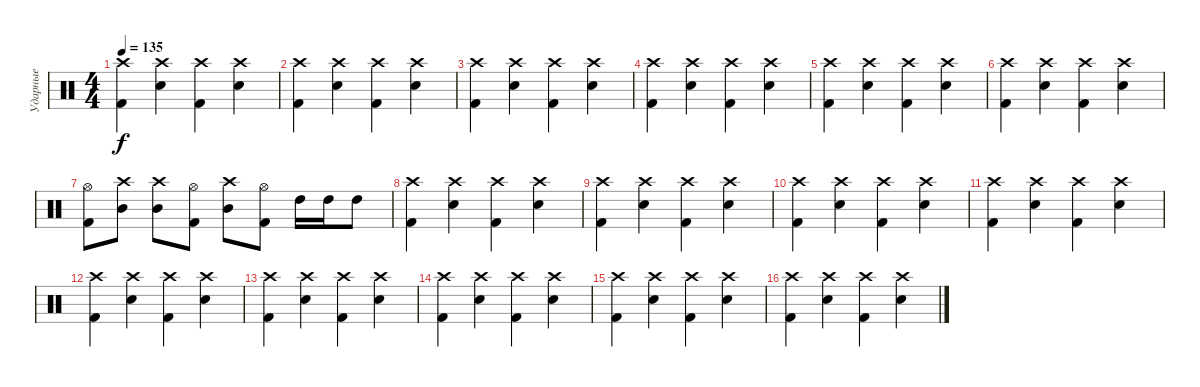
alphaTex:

\track ("Ударные" "Ударные") {instrument percussion}
\staff {score}
\articulation defaults
\ts (4 4)
\tempo 135
\clef neutral
\ks c
("Crash high (hit)" "Kick (hit) 2").4{dy f} ("Crash high (hit)" "Snare (hit) 2").4 ("Crash high (hit)" "Kick (hit) 2").4 ("Crash high (hit)" "Snare (hit) 2").4 |
("Crash high (hit)" "Kick (hit) 2").4 ("Crash high (hit)" "Snare (hit) 2").4 ("Crash high (hit)" "Kick (hit) 2").4 ("Crash high (hit)" "Snare (hit) 2").4 |
("Crash high (hit)" "Kick (hit) 2").4 ("Crash high (hit)" "Snare (hit) 2").4 ("Crash high (hit)" "Kick (hit) 2").4 ("Crash high (hit)" "Snare (hit) 2").4 |
("Crash high (hit)" "Kick (hit) 2").4 ("Crash high (hit)" "Snare (hit) 2").4 ("Crash high (hit)" "Kick (hit) 2").4 ("Crash high (hit)" "Snare (hit) 2").4 |
("Crash high (hit)" "Kick (hit) 2").4 ("Crash high (hit)" "Snare (hit) 2").4 ("Crash high (hit)" "Kick (hit) 2").4 ("Crash high (hit)" "Snare (hit) 2").4 |
("Crash high (hit)" "Kick (hit) 2").4 ("Crash high (hit)" "Snare (hit) 2").4 ("Crash high (hit)" "Kick (hit) 2").4 ("Crash high (hit)" "Snare (hit) 2").4 |
("Hi-Hat (open)" "Kick (hit) 2").8 ("Crash high (hit)" "Mid Tom (hit)").8 ("Crash high (hit)" "Mid Tom (hit)").8 ("Hi-Hat (open)" "Kick (hit) 2").8 ("Crash high (hit)" "Mid Tom (hit)").8 ("Hi-Hat (open)" "Kick (hit) 2").8 "High Tom (hit)".16 "High Tom (hit)".16 "High Tom (hit)".8 |
("Crash high (hit)" "Kick (hit) 2").4 ("Crash high (hit)" "Snare (hit) 2").4 ("Crash high (hit)" "Kick (hit) 2").4 ("Crash high (hit)" "Snare (hit) 2").4 |
("Crash high (hit)" "Kick (hit) 2").4 ("Crash high (hit)" "Snare (hit) 2").4 ("Crash high (hit)" "Kick (hit) 2").4 ("Crash high (hit)" "Snare (hit) 2").4 |
("Crash high (hit)" "Kick (hit) 2").4 ("Crash high (hit)" "Snare (hit) 2").4 ("Crash high (hit)" "Kick (hit) 2").4 ("Crash high (hit)" "Snare (hit) 2").4 |
("Crash high (hit)" "Kick (hit) 2").4 ("Crash high (hit)" "Snare (hit) 2").4 ("Crash high (hit)" "Kick (hit) 2").4 ("Crash high (hit)" "Snare (hit) 2").4 |
("Crash high (hit)" "Kick (hit) 2").4 ("Crash high (hit)" "Snare (hit) 2").4 ("Crash high (hit)" "Kick (hit) 2").4 ("Crash high (hit)" "Snare (hit) 2").4 |
("Crash high (hit)" "Kick (hit) 2").4 ("Crash high (hit)" "Snare (hit) 2").4 ("Crash high (hit)" "Kick (hit) 2").4 ("Crash high (hit)" "Snare (hit) 2").4 |
("Crash high (hit)" "Kick (hit) 2").4 ("Crash high (hit)" "Snare (hit) 2").4 ("Crash high (hit)" "Kick (hit) 2").4 ("Crash high (hit)" "Snare (hit) 2").4 |
("Crash high (hit)" "Kick (hit) 2").4 ("Crash high (hit)" "Snare (hit) 2").4 ("Crash high (hit)" "Kick (hit) 2").4 ("Crash high (hit)" "Snare (hit) 2").4 |
("Crash high (hit)" "Kick (hit) 2").4 ("Crash high (hit)" "Snare (hit) 2").4 ("Crash high (hit)" "Kick (hit) 2").4 ("Crash high (hit)" "Snare (hit) 2").4
